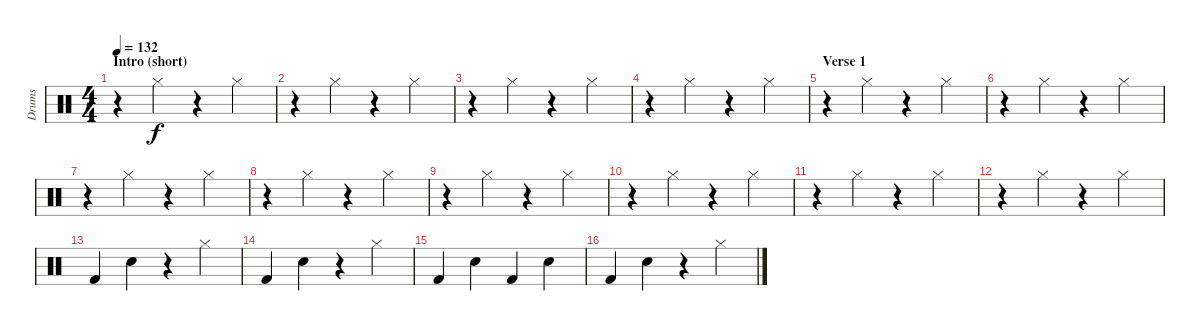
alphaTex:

\track ("Drums" "Drums") {instrument percussion}
\staff {score}
\articulation defaults
\ts (4 4)
\section ("" "Intro (short)")
\tempo 132
\clef neutral
\ks c
r.4{dy f} "Hi-Hat (closed)".4 r.4 "Hi-Hat (closed)".4 |
r.4 "Hi-Hat (closed)".4 r.4 "Hi-Hat (closed)".4 |
r.4 "Hi-Hat (closed)".4 r.4 "Hi-Hat (closed)".4 |
r.4 "Hi-Hat (closed)".4 r.4 "Hi-Hat (closed)".4 |
\section ("" "Verse 1")
r.4 "Hi-Hat (closed)".4 r.4 "Hi-Hat (closed)".4 |
r.4 "Hi-Hat (closed)".4 r.4 "Hi-Hat (closed)".4 |
r.4 "Hi-Hat (closed)".4 r.4 "Hi-Hat (closed)".4 |
r.4 "Hi-Hat (closed)".4 r.4 "Hi-Hat (closed)".4 |
r.4 "Hi-Hat (closed)".4 r.4 "Hi-Hat (closed)".4 |
r.4 "Hi-Hat (closed)".4 r.4 "Hi-Hat (closed)".4 |
r.4 "Hi-Hat (closed)".4 r.4 "Hi-Hat (closed)".4 |
r.4 "Hi-Hat (closed)".4 r.4 "Hi-Hat (closed)".4 |
"Kick (hit) 2".4 "Electric Snare (hit)".4 r.4 "Hi-Hat (closed)".4 |
"Kick (hit) 2".4 "Electric Snare (hit)".4 r.4 "Hi-Hat (closed)".4 |
"Kick (hit) 2".4 "Electric Snare (hit)".4 "Kick (hit) 2".4 "Electric Snare (hit)".4 |
"Kick (hit) 2".4 "Electric Snare (hit)".4 r.4 "Hi-Hat (closed)".4
